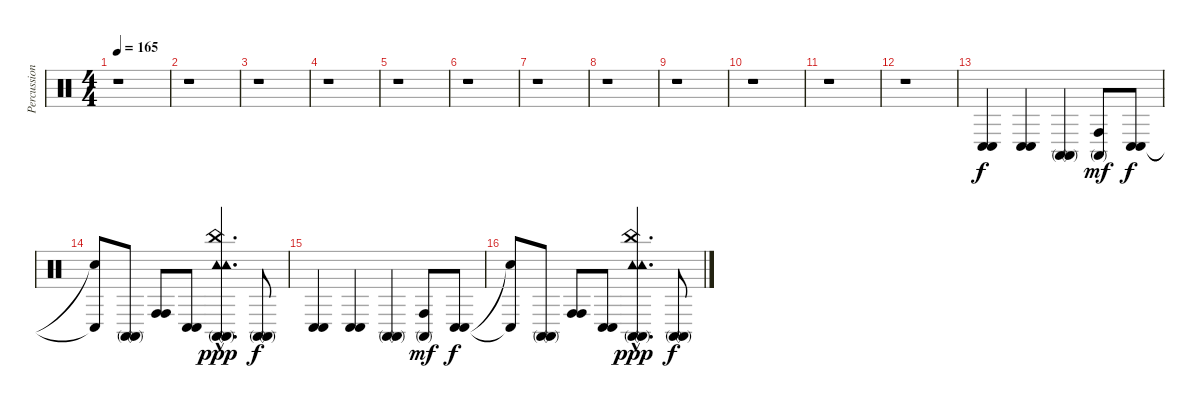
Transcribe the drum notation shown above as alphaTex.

\track ("Percussion" "Percussion") {instrument percussion}
\staff {score}
\articulation defaults
\ts (4 4)
\tempo 165
\clef neutral
\ks c
r.1{dy f} |
r.1 |
r.1 |
r.1 |
r.1 |
r.1 |
r.1 |
r.1 |
r.1 |
r.1 |
r.1 |
r.1 |
("Conga low (hit)" "Conga low (hit)").4 ("Conga low (hit)" "Conga low (hit)").4 ("Conga high (mute)" "Conga high (mute)").4 ("Conga high (hit)" "Conga high (mute)").8{dy mf} ("Conga low (hit)" "Conga low (hit)").8{dy f} |
("Conga low (hit)"{t} "Snare (hit)"{t}).8 ("Conga high (mute)" "Conga high (mute)").8 ("Conga high (hit)" "Conga high (hit)").8 ("Conga low (hit)" "Conga low (hit)").8 ("Conga high (mute)"{hac} "Conga high (mute)"{hac} "Tambourine (hit)"{hac} "Tambourine (hit)"{hac} "China (hit)"{hac}).4{d dy ppp} ("Conga high (mute)" "Conga high (mute)").8{dy f} |
("Conga low (hit)" "Conga low (hit)").4 ("Conga low (hit)" "Conga low (hit)").4 ("Conga high (mute)" "Conga high (mute)").4 ("Conga high (hit)" "Conga high (mute)").8{dy mf} ("Conga low (hit)" "Conga low (hit)").8{dy f} |
("Conga low (hit)"{t} "Snare (hit)"{t}).8 ("Conga high (mute)" "Conga high (mute)").8 ("Conga high (hit)" "Conga high (hit)").8 ("Conga low (hit)" "Conga low (hit)").8 ("Conga high (mute)"{hac} "Conga high (mute)"{hac} "Tambourine (hit)"{hac} "Tambourine (hit)"{hac} "China (hit)"{hac}).4{d dy ppp} ("Conga high (mute)" "Conga high (mute)").8{dy f}
